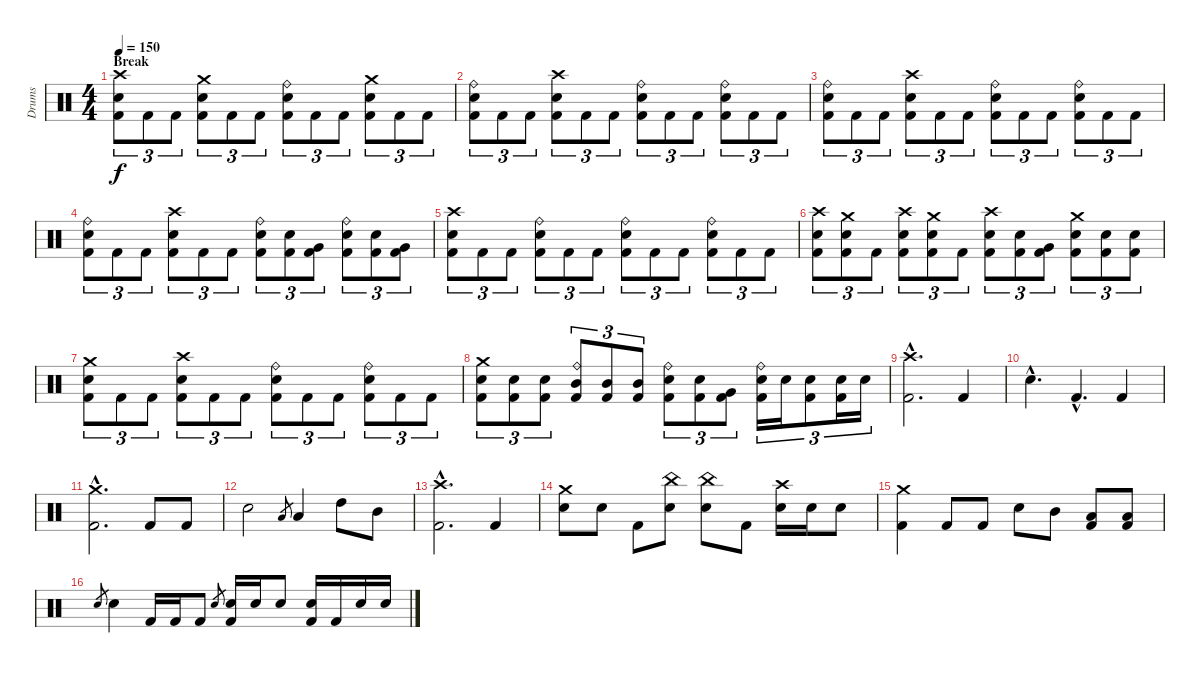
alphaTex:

\track ("Drums" "Drums") {instrument percussion}
\staff {score}
\articulation defaults
\ts (4 4)
\section ("" "Break")
\tempo 150
\clef neutral
\ks c
("Crash high (hit)" "Electric Snare (hit)" "Kick (hit) 2").8{tu (3 2) dy f} "Kick (hit) 2".8{tu (3 2)} "Kick (hit) 2".8{tu (3 2)} ("Crash medium (hit)" "Electric Snare (hit)" "Kick (hit) 2").8{tu (3 2)} "Kick (hit) 2".8{tu (3 2)} "Kick (hit) 2".8{tu (3 2)} ("Ride (bell)" "Electric Snare (hit)" "Kick (hit) 2").8{tu (3 2)} "Kick (hit) 2".8{tu (3 2)} "Kick (hit) 2".8{tu (3 2)} ("Crash medium (hit)" "Electric Snare (hit)" "Kick (hit) 2").8{tu (3 2)} "Kick (hit) 2".8{tu (3 2)} "Kick (hit) 2".8{tu (3 2)} |
("Ride (bell)" "Electric Snare (hit)" "Kick (hit) 2").8{tu (3 2)} "Kick (hit) 2".8{tu (3 2)} "Kick (hit) 2".8{tu (3 2)} ("Crash high (hit)" "Electric Snare (hit)" "Kick (hit) 2").8{tu (3 2)} "Kick (hit) 2".8{tu (3 2)} "Kick (hit) 2".8{tu (3 2)} ("Ride (bell)" "Electric Snare (hit)" "Kick (hit) 2").8{tu (3 2)} "Kick (hit) 2".8{tu (3 2)} "Kick (hit) 2".8{tu (3 2)} ("Ride (bell)" "Electric Snare (hit)" "Kick (hit) 2").8{tu (3 2)} "Kick (hit) 2".8{tu (3 2)} "Kick (hit) 2".8{tu (3 2)} |
("Ride (bell)" "Electric Snare (hit)" "Kick (hit) 2").8{tu (3 2)} "Kick (hit) 2".8{tu (3 2)} "Kick (hit) 2".8{tu (3 2)} ("Crash high (hit)" "Electric Snare (hit)" "Kick (hit) 2").8{tu (3 2)} "Kick (hit) 2".8{tu (3 2)} "Kick (hit) 2".8{tu (3 2)} ("Ride (bell)" "Electric Snare (hit)" "Kick (hit) 2").8{tu (3 2)} "Kick (hit) 2".8{tu (3 2)} "Kick (hit) 2".8{tu (3 2)} ("Ride (bell)" "Electric Snare (hit)" "Kick (hit) 2").8{tu (3 2)} "Kick (hit) 2".8{tu (3 2)} "Kick (hit) 2".8{tu (3 2)} |
("Ride (bell)" "Electric Snare (hit)" "Kick (hit) 2").8{tu (3 2)} "Kick (hit) 2".8{tu (3 2)} "Kick (hit) 2".8{tu (3 2)} ("Crash high (hit)" "Electric Snare (hit)" "Kick (hit) 2").8{tu (3 2)} "Kick (hit) 2".8{tu (3 2)} "Kick (hit) 2".8{tu (3 2)} ("Ride (bell)" "Electric Snare (hit)" "Kick (hit) 2").8{tu (3 2)} ("Electric Snare (hit)" "Kick (hit) 2").8{tu (3 2)} ("Very Low Tom (hit)" "Kick (hit) 2").8{tu (3 2)} ("Ride (bell)" "Electric Snare (hit)" "Kick (hit) 2").8{tu (3 2)} ("Electric Snare (hit)" "Kick (hit) 2").8{tu (3 2)} ("Very Low Tom (hit)" "Kick (hit) 2").8{tu (3 2)} |
("Crash high (hit)" "Electric Snare (hit)" "Kick (hit) 2").8{tu (3 2)} "Kick (hit) 2".8{tu (3 2)} "Kick (hit) 2".8{tu (3 2)} ("Ride (bell)" "Electric Snare (hit)" "Kick (hit) 2").8{tu (3 2)} "Kick (hit) 2".8{tu (3 2)} "Kick (hit) 2".8{tu (3 2)} ("Ride (bell)" "Electric Snare (hit)" "Kick (hit) 2").8{tu (3 2)} "Kick (hit) 2".8{tu (3 2)} "Kick (hit) 2".8{tu (3 2)} ("Ride (bell)" "Electric Snare (hit)" "Kick (hit) 2").8{tu (3 2)} "Kick (hit) 2".8{tu (3 2)} "Kick (hit) 2".8{tu (3 2)} |
("Crash high (hit)" "Electric Snare (hit)" "Kick (hit) 2").8{tu (3 2)} ("Crash medium (hit)" "Electric Snare (hit)" "Kick (hit) 2").8{tu (3 2)} "Kick (hit) 2".8{tu (3 2)} ("Crash high (hit)" "Electric Snare (hit)" "Kick (hit) 2").8{tu (3 2)} ("Crash medium (hit)" "Electric Snare (hit)" "Kick (hit) 2").8{tu (3 2)} "Kick (hit) 2".8{tu (3 2)} ("Crash high (hit)" "Electric Snare (hit)" "Kick (hit) 2").8{tu (3 2)} ("Electric Snare (hit)" "Kick (hit) 2").8{tu (3 2)} ("Very Low Tom (hit)" "Kick (hit) 2").8{tu (3 2)} ("Crash medium (hit)" "Electric Snare (hit)" "Kick (hit) 2").8{tu (3 2)} ("Electric Snare (hit)" "Kick (hit) 2").8{tu (3 2)} ("Electric Snare (hit)" "Kick (hit) 2").8{tu (3 2)} |
("Crash medium (hit)" "Electric Snare (hit)" "Kick (hit) 2").8{tu (3 2)} "Kick (hit) 2".8{tu (3 2)} "Kick (hit) 2".8{tu (3 2)} ("Crash high (hit)" "Electric Snare (hit)" "Kick (hit) 2").8{tu (3 2)} "Kick (hit) 2".8{tu (3 2)} "Kick (hit) 2".8{tu (3 2)} ("Ride (bell)" "Electric Snare (hit)" "Kick (hit) 2").8{tu (3 2)} "Kick (hit) 2".8{tu (3 2)} "Kick (hit) 2".8{tu (3 2)} ("Ride (bell)" "Electric Snare (hit)" "Kick (hit) 2").8{tu (3 2)} "Kick (hit) 2".8{tu (3 2)} "Kick (hit) 2".8{tu (3 2)} |
("Crash medium (hit)" "Electric Snare (hit)" "Kick (hit) 2").8{tu (3 2)} ("Electric Snare (hit)" "Kick (hit) 2").8{tu (3 2)} ("Electric Snare (hit)" "Kick (hit) 2").8{tu (3 2)} ("Ride (bell)" "Mid Tom (hit)" "Kick (hit) 2").8{tu (3 2)} ("Mid Tom (hit)" "Kick (hit) 2").8{tu (3 2)} ("Mid Tom (hit)" "Kick (hit) 2").8{tu (3 2)} ("Ride (bell)" "Electric Snare (hit)" "Kick (hit) 2").8{tu (3 2)} ("Electric Snare (hit)" "Kick (hit) 2").8{tu (3 2)} ("Very Low Tom (hit)" "Kick (hit) 2").8{tu (3 2)} ("Ride (bell)" "Electric Snare (hit)" "Kick (hit) 2").16{tu (3 2)} "Electric Snare (hit)".16{tu (3 2)} ("Electric Snare (hit)" "Kick (hit) 2").8{tu (3 2)} ("Electric Snare (hit)" "Kick (hit) 2").16{tu (3 2)} "Electric Snare (hit)".16{tu (3 2)} |
("Crash high (hit)"{hac} "Kick (hit) 2"{hac}).2{d} "Kick (hit) 2".4 |
"Electric Snare (hit)"{hac}.4{d} "Kick (hit) 2"{hac}.4{d} "Kick (hit) 2".4 |
("Crash medium (hit)"{hac} "Kick (hit) 2"{hac}).2{d} "Kick (hit) 2".8 "Kick (hit) 2".8 |
"Electric Snare (hit)".2 "Low Tom (hit)".8{gr} "Low Tom (hit)".4 "High Tom (hit)".8 "Mid Tom (hit)".8 |
("Crash high (hit)"{hac} "Kick (hit) 2"{hac}).2{d} "Kick (hit) 2".4 |
("Crash medium (hit)" "Electric Snare (hit)").8 "Electric Snare (hit)".8 "Kick (hit) 2".8 ("China (hit)" "Electric Snare (hit)").8 ("China (hit)" "Electric Snare (hit)").8 "Kick (hit) 2".8 ("Crash high (hit)" "Electric Snare (hit)").16 "Electric Snare (hit)".16 "Electric Snare (hit)".8 |
("Crash medium (hit)" "Kick (hit) 2").4 "Kick (hit) 2".8 "Kick (hit) 2".8 "Electric Snare (hit)".8 "Mid Tom (hit)".8 ("Low Tom (hit)" "Kick (hit) 2").8 ("Low Tom (hit)" "Kick (hit) 2").8 |
"Electric Snare (hit)".8{gr} "Electric Snare (hit)".4 "Kick (hit) 2".16 "Kick (hit) 2".16 "Kick (hit) 2".8 "Electric Snare (hit)".8{gr} ("Electric Snare (hit)" "Kick (hit) 2").16 "Electric Snare (hit)".16 "Electric Snare (hit)".8 ("Electric Snare (hit)" "Kick (hit) 2").16 "Kick (hit) 2".16 "Electric Snare (hit)".16 "Electric Snare (hit)".16
